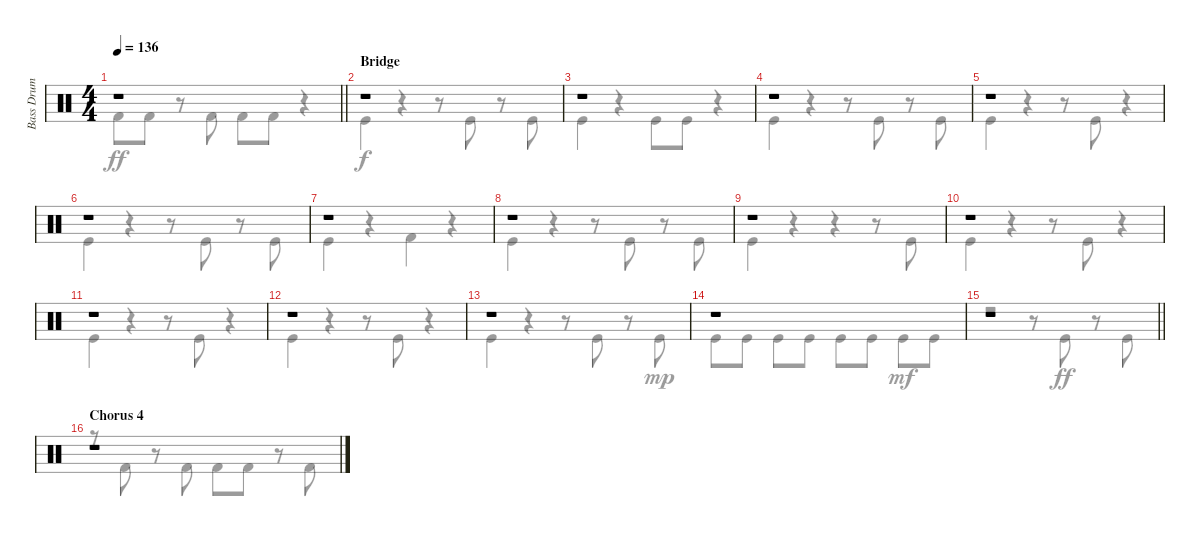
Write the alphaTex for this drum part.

\track ("Bass Drum" "Bass Drum") {instrument percussion}
\staff {score}
\articulation defaults
\voice
\ts (4 4)
\tempo 136
\clef neutral
\barLineRight lightlight
\ks c
r.1{dy f} |
\section ("" "Bridge")
r.1{volume 7} |
r.1 |
r.1 |
r.1 |
r.1 |
r.1 |
r.1 |
r.1 |
r.1 |
r.1 |
r.1 |
r.1 |
r.1 |
\barLineRight lightlight
r.1{volume 13} |
\section ("" "Chorus 4")
r.1
\voice
\clef neutral
\ottava regular
\simile none
\barLineRight lightlight
\ks c "Kick (hit) 2".8{dy ff} "Kick (hit) 2".8
r.8 "Kick (hit) 2".8 "Kick (hit) 2".8 "Kick (hit) 2".8 r.4 |
"Kick (hit)".4{dy f} r.4 r.8 "Kick (hit)".8 r.8 "Kick (hit)".8 |
"Kick (hit)".4 r.4 "Kick (hit)".8 "Kick (hit)".8 r.4 |
"Kick (hit)".4 r.4 r.8 "Kick (hit)".8 r.8 "Kick (hit)".8 |
"Kick (hit)".4 r.4 r.8 "Kick (hit)".8 r.4 |
"Kick (hit)".4 r.4 r.8 "Kick (hit)".8 r.8 "Kick (hit)".8 |
"Kick (hit)".4 r.4 "Kick (hit) 2".4 r.4 |
"Kick (hit)".4 r.4 r.8 "Kick (hit)".8 r.8 "Kick (hit)".8 |
"Kick (hit)".4 r.4 r.4 r.8 "Kick (hit)".8 |
"Kick (hit)".4 r.4 r.8 "Kick (hit)".8 r.4 |
"Kick (hit)".4 r.4 r.8 "Kick (hit)".8 r.4 |
"Kick (hit)".4 r.4 r.8 "Kick (hit)".8 r.4 |
"Kick (hit)".4 r.4 r.8 "Kick (hit)".8 r.8 "Kick (hit)".8{dy mp} |
"Kick (hit)".8 "Kick (hit)".8 "Kick (hit)".8 "Kick (hit)".8 "Kick (hit)".8 "Kick (hit)".8 "Kick (hit)".8{dy mf} "Kick (hit)".8 |
\barLineRight lightlight
r.2 r.8 "Kick (hit)".8{dy ff} r.8 "Kick (hit)".8 |
r.8 "Kick (hit) 2".8 r.8 "Kick (hit) 2".8 "Kick (hit) 2".8 "Kick (hit) 2".8 r.8 "Kick (hit) 2".8
